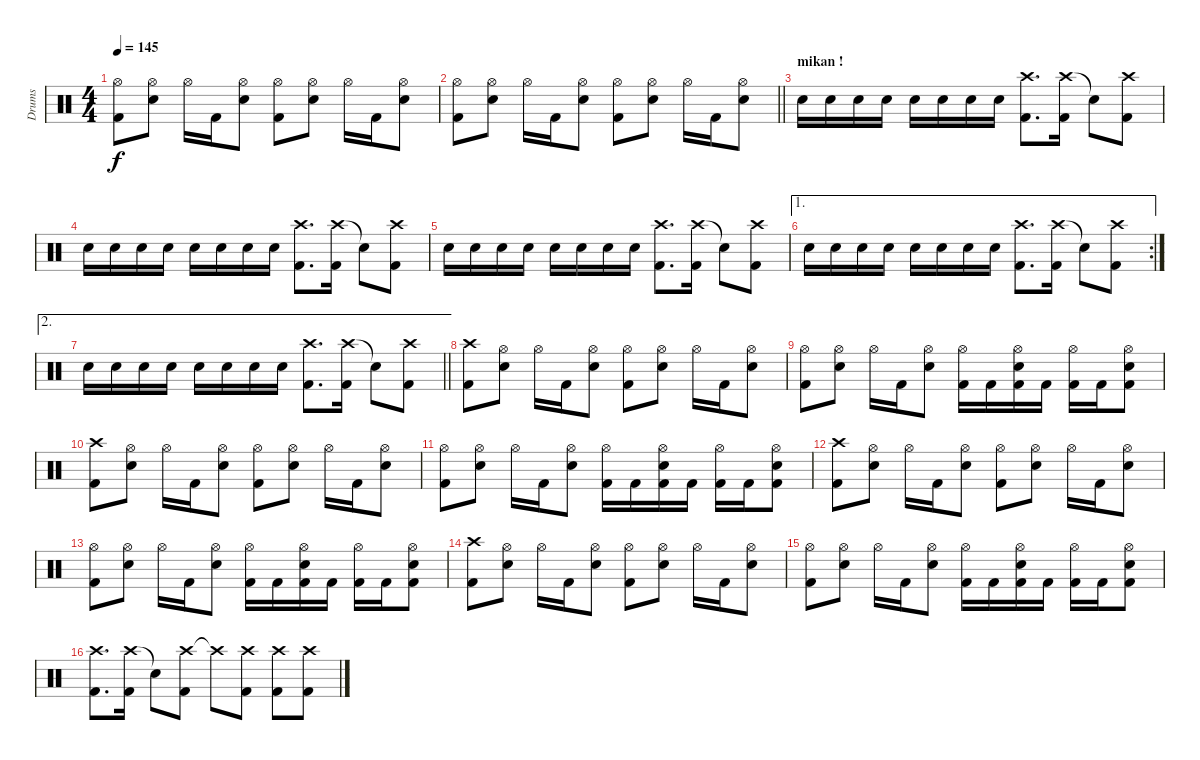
\track ("Drums" "Drums") {instrument percussion}
\staff {score}
\articulation defaults
\ts (4 4)
\tempo 145
\clef neutral
\ks c
("Hi-Hat (open)" "Kick (hit) 2").8{dy f} ("Hi-Hat (open)" "Snare (hit) 2").8 "Hi-Hat (open)".16 "Kick (hit) 2".16 ("Hi-Hat (open)" "Snare (hit) 2").8 ("Hi-Hat (open)" "Kick (hit) 2").8 ("Hi-Hat (open)" "Snare (hit) 2").8 "Hi-Hat (open)".16 "Kick (hit) 2".16 ("Hi-Hat (open)" "Snare (hit) 2").8 |
\barLineRight lightlight
("Hi-Hat (open)" "Kick (hit) 2").8 ("Hi-Hat (open)" "Snare (hit) 2").8 "Hi-Hat (open)".16 "Kick (hit) 2".16 ("Hi-Hat (open)" "Snare (hit) 2").8 ("Hi-Hat (open)" "Kick (hit) 2").8 ("Hi-Hat (open)" "Snare (hit) 2").8 "Hi-Hat (open)".16 "Kick (hit) 2".16 ("Hi-Hat (open)" "Snare (hit) 2").8 |
\section ("" "mikan !")
"Snare (hit) 2".16 "Snare (hit) 2".16 "Snare (hit) 2".16 "Snare (hit) 2".16 "Snare (hit) 2".16 "Snare (hit) 2".16 "Snare (hit) 2".16 "Snare (hit) 2".16 ("Crash high (hit)" "Kick (hit) 2").8{d} ("Crash high (hit)" "Kick (hit) 2").16 "Snare (hit)"{t}.8 ("Crash high (hit)" "Kick (hit) 2").8 |
"Snare (hit) 2".16 "Snare (hit) 2".16 "Snare (hit) 2".16 "Snare (hit) 2".16 "Snare (hit) 2".16 "Snare (hit) 2".16 "Snare (hit) 2".16 "Snare (hit) 2".16 ("Crash high (hit)" "Kick (hit) 2").8{d} ("Crash high (hit)" "Kick (hit) 2").16 "Snare (hit)"{t}.8 ("Crash high (hit)" "Kick (hit) 2").8 |
"Snare (hit) 2".16 "Snare (hit) 2".16 "Snare (hit) 2".16 "Snare (hit) 2".16 "Snare (hit) 2".16 "Snare (hit) 2".16 "Snare (hit) 2".16 "Snare (hit) 2".16 ("Crash high (hit)" "Kick (hit) 2").8{d} ("Crash high (hit)" "Kick (hit) 2").16 "Snare (hit)"{t}.8 ("Crash high (hit)" "Kick (hit) 2").8 |
\ae 1
\rc 2 "Snare (hit) 2".16 "Snare (hit) 2".16 "Snare (hit) 2".16 "Snare (hit) 2".16 "Snare (hit) 2".16 "Snare (hit) 2".16 "Snare (hit) 2".16 "Snare (hit) 2".16
("Crash high (hit)" "Kick (hit) 2").8{d} ("Crash high (hit)" "Kick (hit) 2").16 "Snare (hit)"{t}.8 ("Crash high (hit)" "Kick (hit) 2").8 |
\ae 2
\barLineRight lightlight "Snare (hit) 2".16 "Snare (hit) 2".16 "Snare (hit) 2".16 "Snare (hit) 2".16 "Snare (hit) 2".16 "Snare (hit) 2".16 "Snare (hit) 2".16 "Snare (hit) 2".16
("Crash high (hit)" "Kick (hit) 2").8{d} ("Crash high (hit)" "Kick (hit) 2").16 "Snare (hit)"{t}.8 ("Crash high (hit)" "Kick (hit) 2").8 |
("Crash high (hit)" "Kick (hit) 2").8 ("Hi-Hat (open)" "Snare (hit) 2").8 "Hi-Hat (open)".16 "Kick (hit) 2".16 ("Hi-Hat (open)" "Snare (hit) 2").8 ("Hi-Hat (open)" "Kick (hit) 2").8 ("Hi-Hat (open)" "Snare (hit) 2").8 "Hi-Hat (open)".16 "Kick (hit) 2".16 ("Hi-Hat (open)" "Snare (hit) 2").8 |
("Hi-Hat (open)" "Kick (hit) 2").8 ("Hi-Hat (open)" "Snare (hit) 2").8 "Hi-Hat (open)".16 "Kick (hit) 2".16 ("Hi-Hat (open)" "Snare (hit) 2").8 ("Hi-Hat (open)" "Kick (hit) 2").16 "Kick (hit) 2".16 ("Hi-Hat (open)" "Snare (hit) 2" "Kick (hit) 2").16 "Kick (hit) 2".16 ("Hi-Hat (open)" "Kick (hit) 2").16 "Kick (hit) 2".16 ("Hi-Hat (open)" "Snare (hit) 2" "Kick (hit) 2").8 |
("Crash high (hit)" "Kick (hit) 2").8 ("Hi-Hat (open)" "Snare (hit) 2").8 "Hi-Hat (open)".16 "Kick (hit) 2".16 ("Hi-Hat (open)" "Snare (hit) 2").8 ("Hi-Hat (open)" "Kick (hit) 2").8 ("Hi-Hat (open)" "Snare (hit) 2").8 "Hi-Hat (open)".16 "Kick (hit) 2".16 ("Hi-Hat (open)" "Snare (hit) 2").8 |
("Hi-Hat (open)" "Kick (hit) 2").8 ("Hi-Hat (open)" "Snare (hit) 2").8 "Hi-Hat (open)".16 "Kick (hit) 2".16 ("Hi-Hat (open)" "Snare (hit) 2").8 ("Hi-Hat (open)" "Kick (hit) 2").16 "Kick (hit) 2".16 ("Hi-Hat (open)" "Snare (hit) 2" "Kick (hit) 2").16 "Kick (hit) 2".16 ("Hi-Hat (open)" "Kick (hit) 2").16 "Kick (hit) 2".16 ("Hi-Hat (open)" "Snare (hit) 2" "Kick (hit) 2").8 |
("Crash high (hit)" "Kick (hit) 2").8 ("Hi-Hat (open)" "Snare (hit) 2").8 "Hi-Hat (open)".16 "Kick (hit) 2".16 ("Hi-Hat (open)" "Snare (hit) 2").8 ("Hi-Hat (open)" "Kick (hit) 2").8 ("Hi-Hat (open)" "Snare (hit) 2").8 "Hi-Hat (open)".16 "Kick (hit) 2".16 ("Hi-Hat (open)" "Snare (hit) 2").8 |
("Hi-Hat (open)" "Kick (hit) 2").8 ("Hi-Hat (open)" "Snare (hit) 2").8 "Hi-Hat (open)".16 "Kick (hit) 2".16 ("Hi-Hat (open)" "Snare (hit) 2").8 ("Hi-Hat (open)" "Kick (hit) 2").16 "Kick (hit) 2".16 ("Hi-Hat (open)" "Snare (hit) 2" "Kick (hit) 2").16 "Kick (hit) 2".16 ("Hi-Hat (open)" "Kick (hit) 2").16 "Kick (hit) 2".16 ("Hi-Hat (open)" "Snare (hit) 2" "Kick (hit) 2").8 |
("Crash high (hit)" "Kick (hit) 2").8 ("Hi-Hat (open)" "Snare (hit) 2").8 "Hi-Hat (open)".16 "Kick (hit) 2".16 ("Hi-Hat (open)" "Snare (hit) 2").8 ("Hi-Hat (open)" "Kick (hit) 2").8 ("Hi-Hat (open)" "Snare (hit) 2").8 "Hi-Hat (open)".16 "Kick (hit) 2".16 ("Hi-Hat (open)" "Snare (hit) 2").8 |
("Hi-Hat (open)" "Kick (hit) 2").8 ("Hi-Hat (open)" "Snare (hit) 2").8 "Hi-Hat (open)".16 "Kick (hit) 2".16 ("Hi-Hat (open)" "Snare (hit) 2").8 ("Hi-Hat (open)" "Kick (hit) 2").16 "Kick (hit) 2".16 ("Hi-Hat (open)" "Snare (hit) 2" "Kick (hit) 2").16 "Kick (hit) 2".16 ("Hi-Hat (open)" "Kick (hit) 2").16 "Kick (hit) 2".16 ("Hi-Hat (open)" "Snare (hit) 2" "Kick (hit) 2").8 |
("Crash high (hit)" "Kick (hit) 2").8{d} ("Crash high (hit)" "Kick (hit) 2").16 "Snare (hit)"{t}.8 ("Crash high (hit)" "Kick (hit) 2").8 "Crash high (hit)"{t}.8 ("Crash high (hit)" "Kick (hit) 2").8 ("Crash high (hit)" "Kick (hit) 2").8 ("Crash high (hit)" "Kick (hit) 2").8
